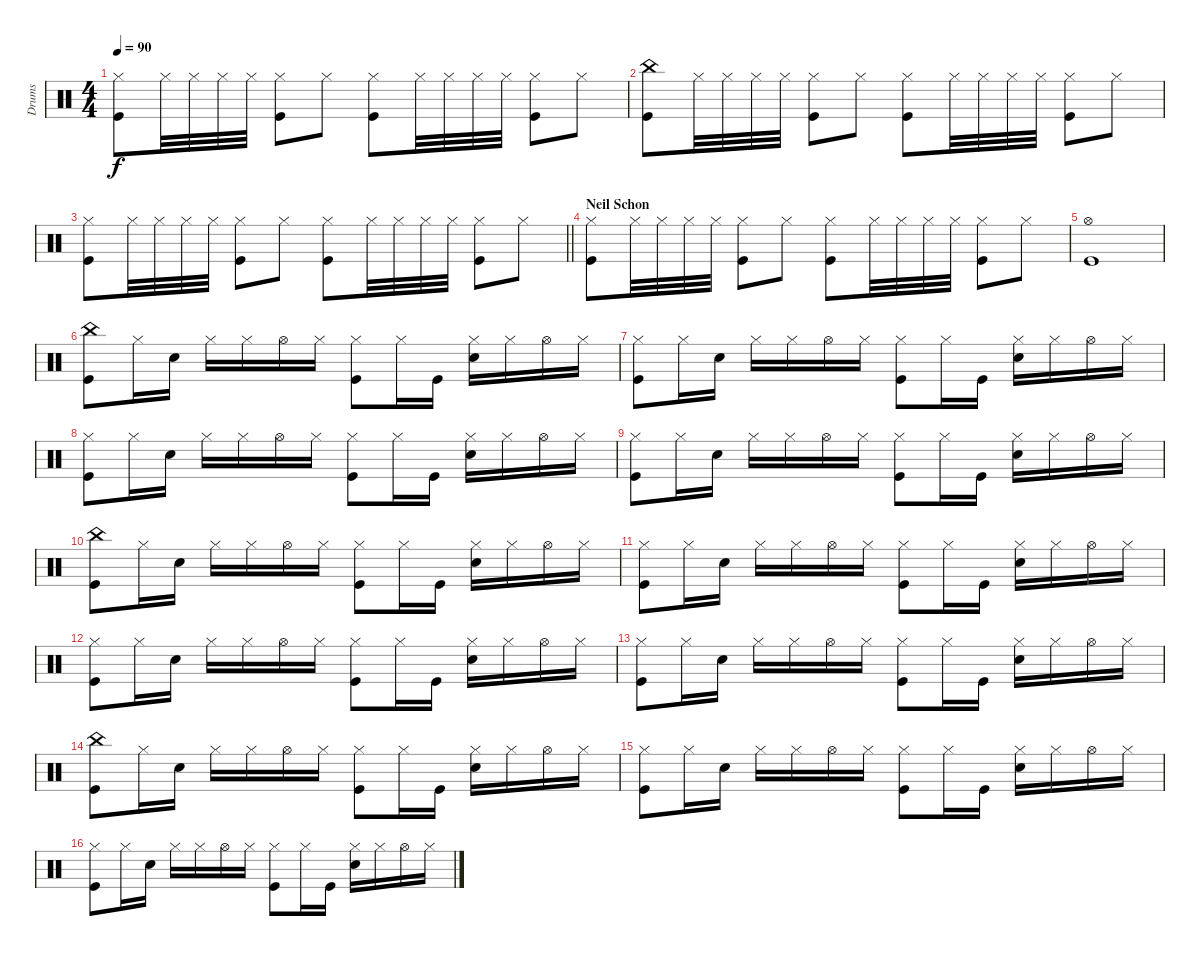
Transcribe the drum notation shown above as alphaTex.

\track ("Drums" "Drums") {instrument percussion}
\staff {score}
\articulation defaults
\ts (4 4)
\tempo 90
\clef neutral
\ks c
("Hi-Hat (closed)" "Kick (hit)").8{dy f} "Hi-Hat (closed)".32 "Hi-Hat (closed)".32 "Hi-Hat (closed)".32 "Hi-Hat (closed)".32 ("Hi-Hat (closed)" "Kick (hit)").8 "Hi-Hat (closed)".8 ("Hi-Hat (closed)" "Kick (hit)").8 "Hi-Hat (closed)".32 "Hi-Hat (closed)".32 "Hi-Hat (closed)".32 "Hi-Hat (closed)".32 ("Hi-Hat (closed)" "Kick (hit)").8 "Hi-Hat (closed)".8 |
("China (hit)" "Kick (hit)").8 "Hi-Hat (closed)".32 "Hi-Hat (closed)".32 "Hi-Hat (closed)".32 "Hi-Hat (closed)".32 ("Hi-Hat (closed)" "Kick (hit)").8 "Hi-Hat (closed)".8 ("Hi-Hat (closed)" "Kick (hit)").8 "Hi-Hat (closed)".32 "Hi-Hat (closed)".32 "Hi-Hat (closed)".32 "Hi-Hat (closed)".32 ("Hi-Hat (closed)" "Kick (hit)").8 "Hi-Hat (closed)".8 |
\barLineRight lightlight
("Hi-Hat (closed)" "Kick (hit)").8 "Hi-Hat (closed)".32 "Hi-Hat (closed)".32 "Hi-Hat (closed)".32 "Hi-Hat (closed)".32 ("Hi-Hat (closed)" "Kick (hit)").8 "Hi-Hat (closed)".8 ("Hi-Hat (closed)" "Kick (hit)").8 "Hi-Hat (closed)".32 "Hi-Hat (closed)".32 "Hi-Hat (closed)".32 "Hi-Hat (closed)".32 ("Hi-Hat (closed)" "Kick (hit)").8 "Hi-Hat (closed)".8 |
\section ("" "Neil Schon")
("Hi-Hat (closed)" "Kick (hit)").8 "Hi-Hat (closed)".32 "Hi-Hat (closed)".32 "Hi-Hat (closed)".32 "Hi-Hat (closed)".32 ("Hi-Hat (closed)" "Kick (hit)").8 "Hi-Hat (closed)".8 ("Hi-Hat (closed)" "Kick (hit)").8 "Hi-Hat (closed)".32 "Hi-Hat (closed)".32 "Hi-Hat (closed)".32 "Hi-Hat (closed)".32 ("Hi-Hat (closed)" "Kick (hit)").8 "Hi-Hat (closed)".8 |
("Hi-Hat (open)" "Kick (hit)").1 |
("China (hit)" "Kick (hit)").8 "Hi-Hat (closed)".16 "Snare (hit) 2".16 "Hi-Hat (closed)".16 "Hi-Hat (closed)".16 "Hi-Hat (open)".16 "Hi-Hat (closed)".16 ("Hi-Hat (closed)" "Kick (hit)").8 "Hi-Hat (closed)".16 "Kick (hit)".16 ("Hi-Hat (closed)" "Snare (hit) 2").16 "Hi-Hat (closed)".16 "Hi-Hat (open)".16 "Hi-Hat (closed)".16 |
("Hi-Hat (closed)" "Kick (hit)").8 "Hi-Hat (closed)".16 "Snare (hit) 2".16 "Hi-Hat (closed)".16 "Hi-Hat (closed)".16 "Hi-Hat (open)".16 "Hi-Hat (closed)".16 ("Hi-Hat (closed)" "Kick (hit)").8 "Hi-Hat (closed)".16 "Kick (hit)".16 ("Hi-Hat (closed)" "Snare (hit) 2").16 "Hi-Hat (closed)".16 "Hi-Hat (open)".16 "Hi-Hat (closed)".16 |
("Hi-Hat (closed)" "Kick (hit)").8 "Hi-Hat (closed)".16 "Snare (hit) 2".16 "Hi-Hat (closed)".16 "Hi-Hat (closed)".16 "Hi-Hat (open)".16 "Hi-Hat (closed)".16 ("Hi-Hat (closed)" "Kick (hit)").8 "Hi-Hat (closed)".16 "Kick (hit)".16 ("Hi-Hat (closed)" "Snare (hit) 2").16 "Hi-Hat (closed)".16 "Hi-Hat (open)".16 "Hi-Hat (closed)".16 |
("Hi-Hat (closed)" "Kick (hit)").8 "Hi-Hat (closed)".16 "Snare (hit) 2".16 "Hi-Hat (closed)".16 "Hi-Hat (closed)".16 "Hi-Hat (open)".16 "Hi-Hat (closed)".16 ("Hi-Hat (closed)" "Kick (hit)").8 "Hi-Hat (closed)".16 "Kick (hit)".16 ("Hi-Hat (closed)" "Snare (hit) 2").16 "Hi-Hat (closed)".16 "Hi-Hat (open)".16 "Hi-Hat (closed)".16 |
("China (hit)" "Kick (hit)").8 "Hi-Hat (closed)".16 "Snare (hit) 2".16 "Hi-Hat (closed)".16 "Hi-Hat (closed)".16 "Hi-Hat (open)".16 "Hi-Hat (closed)".16 ("Hi-Hat (closed)" "Kick (hit)").8 "Hi-Hat (closed)".16 "Kick (hit)".16 ("Hi-Hat (closed)" "Snare (hit) 2").16 "Hi-Hat (closed)".16 "Hi-Hat (open)".16 "Hi-Hat (closed)".16 |
("Hi-Hat (closed)" "Kick (hit)").8 "Hi-Hat (closed)".16 "Snare (hit) 2".16 "Hi-Hat (closed)".16 "Hi-Hat (closed)".16 "Hi-Hat (open)".16 "Hi-Hat (closed)".16 ("Hi-Hat (closed)" "Kick (hit)").8 "Hi-Hat (closed)".16 "Kick (hit)".16 ("Hi-Hat (closed)" "Snare (hit) 2").16 "Hi-Hat (closed)".16 "Hi-Hat (open)".16 "Hi-Hat (closed)".16 |
("Hi-Hat (closed)" "Kick (hit)").8 "Hi-Hat (closed)".16 "Snare (hit) 2".16 "Hi-Hat (closed)".16 "Hi-Hat (closed)".16 "Hi-Hat (open)".16 "Hi-Hat (closed)".16 ("Hi-Hat (closed)" "Kick (hit)").8 "Hi-Hat (closed)".16 "Kick (hit)".16 ("Hi-Hat (closed)" "Snare (hit) 2").16 "Hi-Hat (closed)".16 "Hi-Hat (open)".16 "Hi-Hat (closed)".16 |
("Hi-Hat (closed)" "Kick (hit)").8 "Hi-Hat (closed)".16 "Snare (hit) 2".16 "Hi-Hat (closed)".16 "Hi-Hat (closed)".16 "Hi-Hat (open)".16 "Hi-Hat (closed)".16 ("Hi-Hat (closed)" "Kick (hit)").8 "Hi-Hat (closed)".16 "Kick (hit)".16 ("Hi-Hat (closed)" "Snare (hit) 2").16 "Hi-Hat (closed)".16 "Hi-Hat (open)".16 "Hi-Hat (closed)".16 |
("China (hit)" "Kick (hit)").8 "Hi-Hat (closed)".16 "Snare (hit) 2".16 "Hi-Hat (closed)".16 "Hi-Hat (closed)".16 "Hi-Hat (open)".16 "Hi-Hat (closed)".16 ("Hi-Hat (closed)" "Kick (hit)").8 "Hi-Hat (closed)".16 "Kick (hit)".16 ("Hi-Hat (closed)" "Snare (hit) 2").16 "Hi-Hat (closed)".16 "Hi-Hat (open)".16 "Hi-Hat (closed)".16 |
("Hi-Hat (closed)" "Kick (hit)").8 "Hi-Hat (closed)".16 "Snare (hit) 2".16 "Hi-Hat (closed)".16 "Hi-Hat (closed)".16 "Hi-Hat (open)".16 "Hi-Hat (closed)".16 ("Hi-Hat (closed)" "Kick (hit)").8 "Hi-Hat (closed)".16 "Kick (hit)".16 ("Hi-Hat (closed)" "Snare (hit) 2").16 "Hi-Hat (closed)".16 "Hi-Hat (open)".16 "Hi-Hat (closed)".16 |
("Hi-Hat (closed)" "Kick (hit)").8 "Hi-Hat (closed)".16 "Snare (hit) 2".16 "Hi-Hat (closed)".16 "Hi-Hat (closed)".16 "Hi-Hat (open)".16 "Hi-Hat (closed)".16 ("Hi-Hat (closed)" "Kick (hit)").8 "Hi-Hat (closed)".16 "Kick (hit)".16 ("Hi-Hat (closed)" "Snare (hit) 2").16 "Hi-Hat (closed)".16 "Hi-Hat (open)".16 "Hi-Hat (closed)".16
